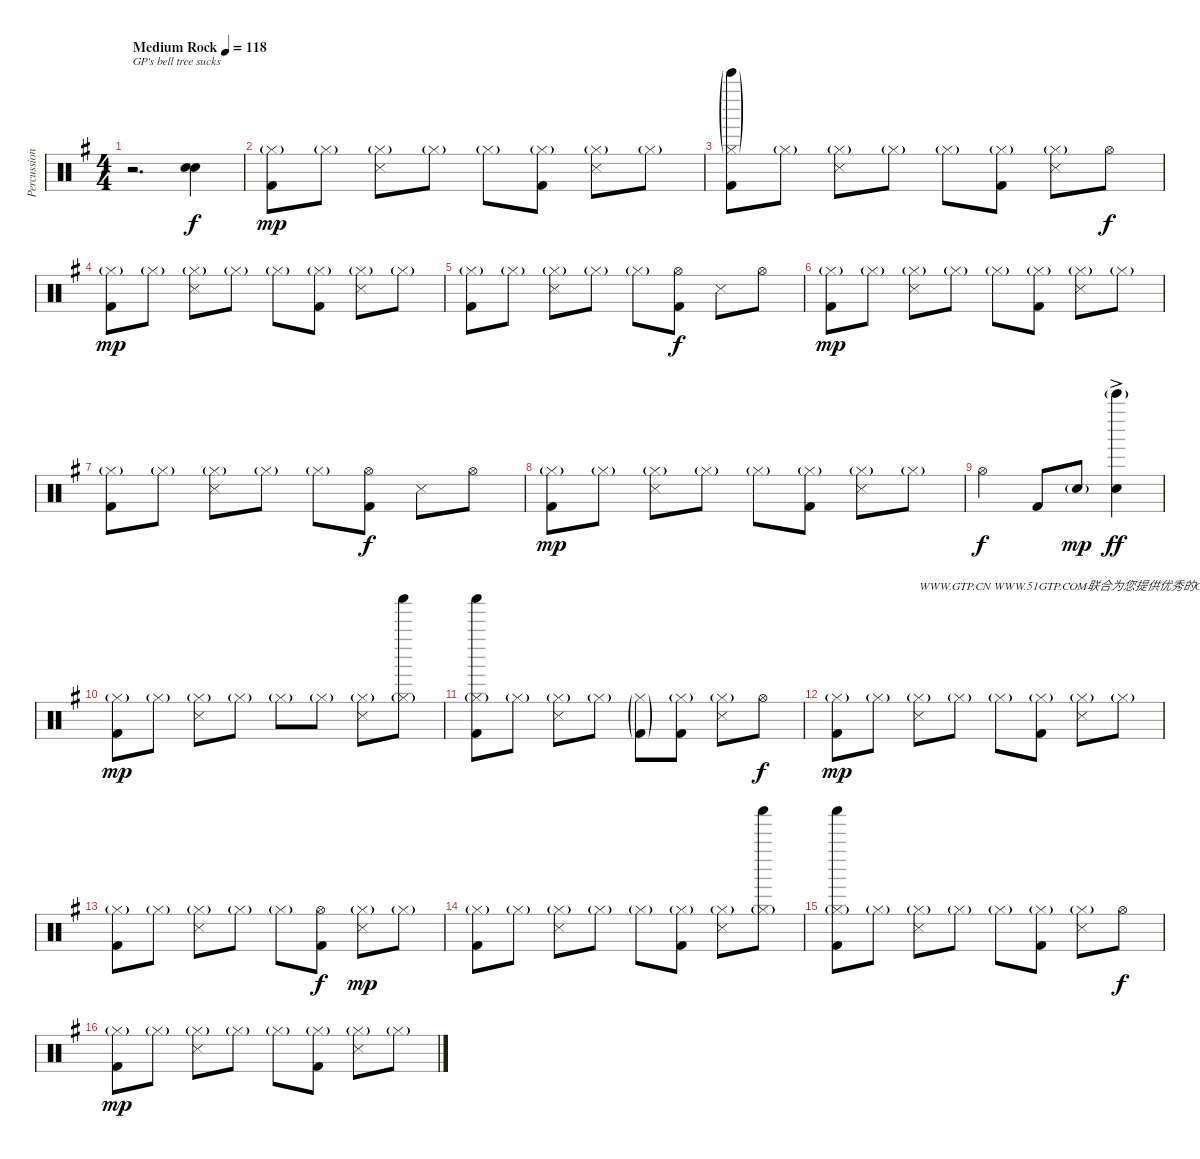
\track ("Percussion" "Percussion") {instrument percussion}
\staff {score}
\articulation defaults
\ts (4 4)
\tempo (118 "Medium Rock")
\clef neutral
\ks eminor
r.2{d txt "GP's bell tree sucks" dy f} ("Electric Snare (hit)" "Electric Snare (hit)").4{bd 240} |
("Hi-Hat (closed)"{g} "Kick (hit) 2").8{dy mp} "Hi-Hat (closed)"{g}.8 ("Hi-Hat (closed)"{g} "Snare (side stick) 3").8 "Hi-Hat (closed)"{g}.8 "Hi-Hat (closed)"{g}.8 ("Hi-Hat (closed)"{g} "Kick (hit) 2").8 ("Hi-Hat (closed)"{g} "Snare (side stick) 3").8 "Hi-Hat (closed)"{g}.8 |
("Bell Tree (hit)"{g} "Hi-Hat (closed)"{g} "Kick (hit) 2").8 "Hi-Hat (closed)"{g}.8 ("Hi-Hat (closed)"{g} "Snare (side stick) 3").8 "Hi-Hat (closed)"{g}.8 "Hi-Hat (closed)"{g}.8 ("Hi-Hat (closed)"{g} "Kick (hit) 2").8 ("Hi-Hat (closed)"{g} "Snare (side stick) 3").8 "Hi-Hat (open)".8{dy f} |
("Hi-Hat (closed)"{g} "Kick (hit) 2").8{dy mp} "Hi-Hat (closed)"{g}.8 ("Hi-Hat (closed)"{g} "Snare (side stick) 3").8 "Hi-Hat (closed)"{g}.8 "Hi-Hat (closed)"{g}.8 ("Hi-Hat (closed)"{g} "Kick (hit) 2").8 ("Hi-Hat (closed)"{g} "Snare (side stick) 3").8 "Hi-Hat (closed)"{g}.8 |
("Hi-Hat (closed)"{g} "Kick (hit) 2").8 "Hi-Hat (closed)"{g}.8 ("Hi-Hat (closed)"{g} "Snare (side stick) 3").8 "Hi-Hat (closed)"{g}.8 "Hi-Hat (closed)"{g}.8 ("Hi-Hat (open)" "Kick (hit) 2").8{dy f} "Snare (side stick) 3".8 "Hi-Hat (open)".8 |
("Hi-Hat (closed)"{g} "Kick (hit) 2").8{dy mp} "Hi-Hat (closed)"{g}.8 ("Hi-Hat (closed)"{g} "Snare (side stick) 3").8 "Hi-Hat (closed)"{g}.8 "Hi-Hat (closed)"{g}.8 ("Hi-Hat (closed)"{g} "Kick (hit) 2").8 ("Hi-Hat (closed)"{g} "Snare (side stick) 3").8 "Hi-Hat (closed)"{g}.8 |
("Hi-Hat (closed)"{g} "Kick (hit) 2").8 "Hi-Hat (closed)"{g}.8 ("Hi-Hat (closed)"{g} "Snare (side stick) 3").8 "Hi-Hat (closed)"{g}.8 "Hi-Hat (closed)"{g}.8 ("Hi-Hat (open)" "Kick (hit) 2").8{dy f} "Snare (side stick) 3".8 "Hi-Hat (open)".8 |
("Hi-Hat (closed)"{g} "Kick (hit) 2").8{dy mp} "Hi-Hat (closed)"{g}.8 ("Hi-Hat (closed)"{g} "Snare (side stick) 3").8 "Hi-Hat (closed)"{g}.8 "Hi-Hat (closed)"{g}.8 ("Hi-Hat (closed)"{g} "Kick (hit) 2").8 ("Hi-Hat (closed)"{g} "Snare (side stick) 3").8 "Hi-Hat (closed)"{g}.8 |
"Hi-Hat (open)".2{dy f} "Kick (hit) 2".8 "Electric Snare (hit)"{g}.8{dy mp} ("Bell Tree (hit)"{g} "Electric Snare (hit)"{ac}).4{dy ff} |
("Hi-Hat (closed)"{g} "Kick (hit) 2").8{dy mp} "Hi-Hat (closed)"{g}.8 ("Hi-Hat (closed)"{g} "Snare (side stick) 3").8 "Hi-Hat (closed)"{g}.8 "Hi-Hat (closed)"{g}.8 "Hi-Hat (closed)"{g}.8 ("Hi-Hat (closed)"{g} "Snare (side stick) 3").8 ("Shaker (hit)" "Hi-Hat (closed)"{g}).8 |
("Shaker (hit)" "Hi-Hat (closed)"{g} "Kick (hit) 2").8 "Hi-Hat (closed)"{g}.8 ("Hi-Hat (closed)"{g} "Snare (side stick) 3").8 "Hi-Hat (closed)"{g}.8 ("Hi-Hat (closed)"{g} "Kick (hit) 2"{g}).8 ("Hi-Hat (closed)"{g} "Kick (hit) 2").8 ("Hi-Hat (closed)"{g} "Snare (side stick) 3").8 "Hi-Hat (open)".8{dy f} |
("Hi-Hat (closed)"{g} "Kick (hit) 2").8{dy mp} "Hi-Hat (closed)"{g}.8 ("Hi-Hat (closed)"{g} "Snare (side stick) 3").8{txt "WWW.GTP.CN WWW.51GTP.COM联合为您提供优秀的GTP!"} "Hi-Hat (closed)"{g}.8 "Hi-Hat (closed)"{g}.8 ("Hi-Hat (closed)"{g} "Kick (hit) 2").8 ("Hi-Hat (closed)"{g} "Snare (side stick) 3").8 "Hi-Hat (closed)"{g}.8 |
("Hi-Hat (closed)"{g} "Kick (hit) 2").8 "Hi-Hat (closed)"{g}.8 ("Hi-Hat (closed)"{g} "Snare (side stick) 3").8 "Hi-Hat (closed)"{g}.8 "Hi-Hat (closed)"{g}.8 ("Hi-Hat (open)" "Kick (hit) 2").8{dy f} ("Hi-Hat (closed)"{g} "Snare (side stick) 3").8{dy mp} "Hi-Hat (closed)"{g}.8 |
("Hi-Hat (closed)"{g} "Kick (hit) 2").8 "Hi-Hat (closed)"{g}.8 ("Hi-Hat (closed)"{g} "Snare (side stick) 3").8 "Hi-Hat (closed)"{g}.8 "Hi-Hat (closed)"{g}.8 ("Hi-Hat (closed)"{g} "Kick (hit) 2").8 ("Hi-Hat (closed)"{g} "Snare (side stick) 3").8 ("Shaker (hit)" "Hi-Hat (closed)"{g}).8 |
("Shaker (hit)" "Hi-Hat (closed)"{g} "Kick (hit) 2").8 "Hi-Hat (closed)"{g}.8 ("Hi-Hat (closed)"{g} "Snare (side stick) 3").8 "Hi-Hat (closed)"{g}.8 "Hi-Hat (closed)"{g}.8 ("Hi-Hat (closed)"{g} "Kick (hit) 2").8 ("Hi-Hat (closed)"{g} "Snare (side stick) 3").8 "Hi-Hat (open)".8{dy f} |
("Hi-Hat (closed)"{g} "Kick (hit) 2").8{dy mp} "Hi-Hat (closed)"{g}.8 ("Hi-Hat (closed)"{g} "Snare (side stick) 3").8 "Hi-Hat (closed)"{g}.8 "Hi-Hat (closed)"{g}.8 ("Hi-Hat (closed)"{g} "Kick (hit) 2").8 ("Hi-Hat (closed)"{g} "Snare (side stick) 3").8 "Hi-Hat (closed)"{g}.8
